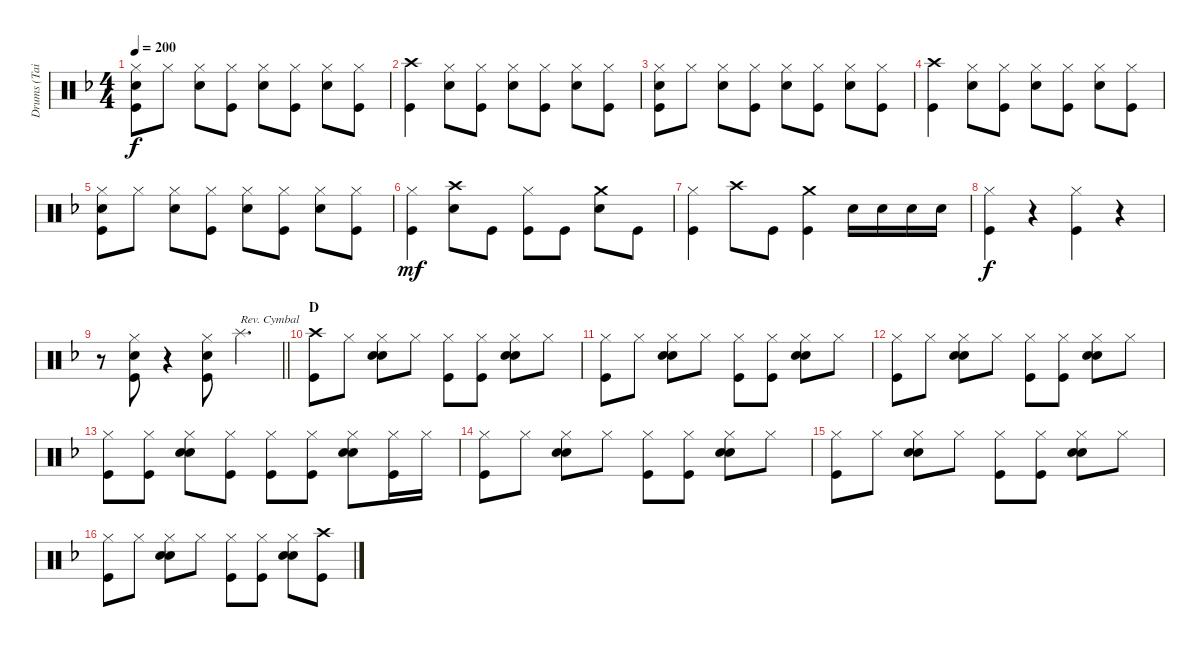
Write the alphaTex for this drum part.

\track ("Drums (Tainaka Ritsu)" "Drums (Tai") {instrument percussion}
\staff {score}
\articulation defaults
\ts (4 4)
\tempo 200
\clef neutral
\ks f
("Hi-Hat (closed)" "Snare (hit) 2" "Kick (hit)").8{dy f} "Hi-Hat (closed)".8 ("Hi-Hat (closed)" "Snare (hit) 2").8 ("Hi-Hat (closed)" "Kick (hit)").8 ("Hi-Hat (closed)" "Snare (hit) 2").8 ("Hi-Hat (closed)" "Kick (hit)").8 ("Hi-Hat (closed)" "Snare (hit) 2").8 ("Hi-Hat (closed)" "Kick (hit)").8 |
("Crash high (hit)" "Kick (hit)").4 ("Hi-Hat (closed)" "Snare (hit) 2").8 ("Hi-Hat (closed)" "Kick (hit)").8 ("Hi-Hat (closed)" "Snare (hit) 2").8 ("Hi-Hat (closed)" "Kick (hit)").8 ("Hi-Hat (closed)" "Snare (hit) 2").8 ("Hi-Hat (closed)" "Kick (hit)").8 |
("Hi-Hat (closed)" "Snare (hit) 2" "Kick (hit)").8 "Hi-Hat (closed)".8 ("Hi-Hat (closed)" "Snare (hit) 2").8 ("Hi-Hat (closed)" "Kick (hit)").8 ("Hi-Hat (closed)" "Snare (hit) 2").8 ("Hi-Hat (closed)" "Kick (hit)").8 ("Hi-Hat (closed)" "Snare (hit) 2").8 ("Hi-Hat (closed)" "Kick (hit)").8 |
("Crash high (hit)" "Kick (hit)").4 ("Hi-Hat (closed)" "Snare (hit) 2").8 ("Hi-Hat (closed)" "Kick (hit)").8 ("Hi-Hat (closed)" "Snare (hit) 2").8 ("Hi-Hat (closed)" "Kick (hit)").8 ("Hi-Hat (closed)" "Snare (hit) 2").8 ("Hi-Hat (closed)" "Kick (hit)").8 |
("Hi-Hat (closed)" "Snare (hit) 2" "Kick (hit)").8 "Hi-Hat (closed)".8 ("Hi-Hat (closed)" "Snare (hit) 2").8 ("Hi-Hat (closed)" "Kick (hit)").8 ("Hi-Hat (closed)" "Snare (hit) 2").8 ("Hi-Hat (closed)" "Kick (hit)").8 ("Hi-Hat (closed)" "Snare (hit) 2").8 ("Hi-Hat (closed)" "Kick (hit)").8 |
("Hi-Hat (closed)" "Kick (hit)").4{dy mf} ("Crash high (hit)" "Snare (hit) 2").8 "Kick (hit)".8 ("Hi-Hat (closed)" "Kick (hit)").8 "Kick (hit)".8 ("Crash medium (hit)" "Snare (hit) 2").8 "Kick (hit)".8 |
("Hi-Hat (closed)" "Kick (hit)").4 "Crash high (hit)".8 "Kick (hit)".8 ("Crash medium (hit)" "Kick (hit)").4 "Snare (hit) 2".16 "Snare (hit) 2".16 "Snare (hit) 2".16 "Snare (hit) 2".16 |
("Hi-Hat (closed)" "Kick (hit)").4{dy f} r.4 ("Hi-Hat (closed)" "Kick (hit)").4 r.4 |
\barLineRight lightlight
r.8 ("Hi-Hat (closed)" "Snare (hit) 2" "Kick (hit)").8 r.4 ("Hi-Hat (closed)" "Snare (hit) 2" "Kick (hit)").8 "Splash (hit)".4{d txt "Rev. Cymbal"} |
\section ("" "D")
("Crash high (hit)" "Kick (hit)").8 "Hi-Hat (closed)".8 ("Hi-Hat (closed)" "Hand Clap (hit)" "Snare (hit) 2").8 "Hi-Hat (closed)".8 ("Hi-Hat (closed)" "Kick (hit)").8 ("Hi-Hat (closed)" "Kick (hit)").8 ("Hi-Hat (closed)" "Hand Clap (hit)" "Snare (hit) 2").8 "Hi-Hat (closed)".8 |
("Hi-Hat (closed)" "Kick (hit)").8 "Hi-Hat (closed)".8 ("Hi-Hat (closed)" "Hand Clap (hit)" "Snare (hit) 2").8 "Hi-Hat (closed)".8 ("Hi-Hat (closed)" "Kick (hit)").8 ("Hi-Hat (closed)" "Kick (hit)").8 ("Hi-Hat (closed)" "Hand Clap (hit)" "Snare (hit) 2").8 "Hi-Hat (closed)".8 |
("Hi-Hat (closed)" "Kick (hit)").8 "Hi-Hat (closed)".8 ("Hi-Hat (closed)" "Hand Clap (hit)" "Snare (hit) 2").8 "Hi-Hat (closed)".8 ("Hi-Hat (closed)" "Kick (hit)").8 ("Hi-Hat (closed)" "Kick (hit)").8 ("Hi-Hat (closed)" "Hand Clap (hit)" "Snare (hit) 2").8 "Hi-Hat (closed)".8 |
("Hi-Hat (closed)" "Kick (hit)").8 ("Hi-Hat (closed)" "Kick (hit)").8 ("Hi-Hat (closed)" "Hand Clap (hit)" "Snare (hit) 2").8 ("Hi-Hat (closed)" "Kick (hit)").8 ("Hi-Hat (closed)" "Kick (hit)").8 ("Hi-Hat (closed)" "Kick (hit)").8 ("Hi-Hat (closed)" "Hand Clap (hit)" "Snare (hit) 2").8 ("Hi-Hat (closed)" "Kick (hit)").16 "Hi-Hat (closed)".16 |
("Hi-Hat (closed)" "Kick (hit)").8 "Hi-Hat (closed)".8 ("Hi-Hat (closed)" "Hand Clap (hit)" "Snare (hit) 2").8 "Hi-Hat (closed)".8 ("Hi-Hat (closed)" "Kick (hit)").8 ("Hi-Hat (closed)" "Kick (hit)").8 ("Hi-Hat (closed)" "Hand Clap (hit)" "Snare (hit) 2").8 "Hi-Hat (closed)".8 |
("Hi-Hat (closed)" "Kick (hit)").8 "Hi-Hat (closed)".8 ("Hi-Hat (closed)" "Hand Clap (hit)" "Snare (hit) 2").8 "Hi-Hat (closed)".8 ("Hi-Hat (closed)" "Kick (hit)").8 ("Hi-Hat (closed)" "Kick (hit)").8 ("Hi-Hat (closed)" "Hand Clap (hit)" "Snare (hit) 2").8 "Hi-Hat (closed)".8 |
("Hi-Hat (closed)" "Kick (hit)").8 "Hi-Hat (closed)".8 ("Hi-Hat (closed)" "Hand Clap (hit)" "Snare (hit) 2").8 "Hi-Hat (closed)".8 ("Hi-Hat (closed)" "Kick (hit)").8 ("Hi-Hat (closed)" "Kick (hit)").8 ("Hi-Hat (closed)" "Hand Clap (hit)" "Snare (hit) 2").8 ("Crash high (hit)" "Kick (hit)").8
